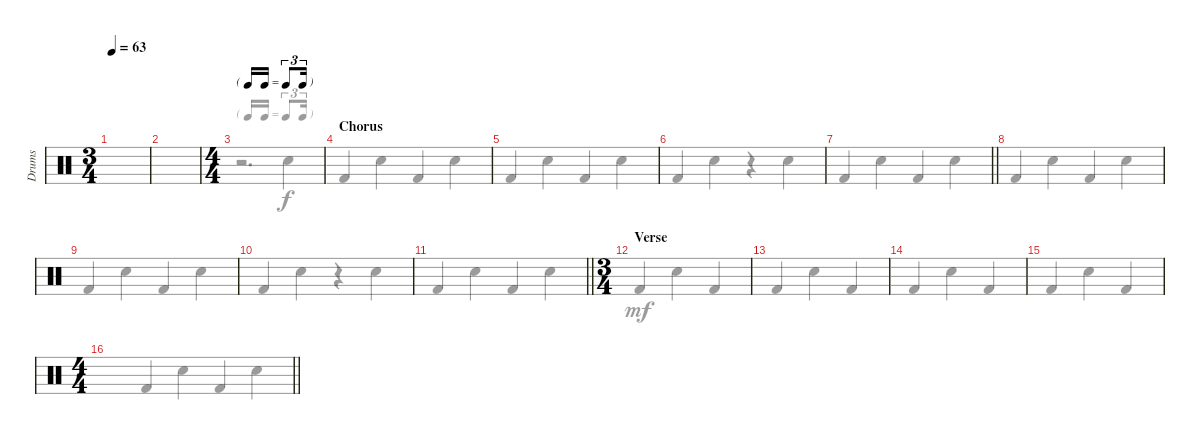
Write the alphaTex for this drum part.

\bracketExtendMode groupsimilarinstruments
\otherSystemsTrackNameOrientation horizontal
\track ("Drumkit" "Drums") {instrument percussion}
\staff {score}
\articulation defaults
\voice
\ts (3 4)
\tempo 63
\clef neutral
\scale
0.263889
\ks c
|
\scale
0.263889 |
\ts (4 4)
\beaming (8 2 2 2 2)
\tf triplet16th
\scale
0.472222 |
\section ("" "Chorus")
\scale
0.333333 |
\scale
0.333333 |
\scale
0.333333 |
\scale
0.263889
\barLineRight lightlight
|
|
|
|
\barLineRight lightlight
|
\ts (3 4)
\beaming (8 2 2 2)
\section ("" "Verse")
\scale
0.472222 |
\scale
0.263889 |
\scale
0.263889 |
\scale
0.263889 |
\ts (4 4)
\beaming (8 2 2 2 2)
\scale
0.472222
\barLineRight lightlight
\voice
\clef neutral
\ottava regular
\simile none
\scale
0.263889
\ks c
|
\scale
0.263889 |
\scale
0.472222 |
\scale
0.333333 |
\scale
0.333333 |
\scale
0.333333 |
\scale
0.263889
\barLineRight lightlight
|
|
|
|
\barLineRight lightlight
|
\scale
0.472222 |
\scale
0.263889 |
\scale
0.263889 |
\scale
0.263889 |
\scale
0.472222
\barLineRight lightlight
\voice
\clef neutral
\ottava regular
\simile none
\scale
0.263889
\ks c
|
\scale
0.263889 |
\scale
0.472222 r.2{d beam Down} "Snare (hit) 2".4{dy f beam Down} |
\scale
0.333333 "Kick (hit) 2".4{beam Up} "Snare (hit) 2".4{beam Down} "Kick (hit) 2".4{beam Up} "Snare (hit) 2".4{beam Down} |
\scale
0.333333 "Kick (hit) 2".4{beam Up} "Snare (hit) 2".4{beam Down} "Kick (hit) 2".4{beam Up} "Snare (hit) 2".4{beam Down} |
\scale
0.333333 "Kick (hit) 2".4{beam Up} "Snare (hit) 2".4{beam Down} r.4{beam Down} "Snare (hit) 2".4{beam Down} |
\scale
0.263889
\barLineRight lightlight "Kick (hit) 2".4{beam Up} "Snare (hit) 2".4{beam Down} "Kick (hit) 2".4{beam Up} "Snare (hit) 2".4{beam Down}
|
"Kick (hit) 2".4{beam Up} "Snare (hit) 2".4{beam Down} "Kick (hit) 2".4{beam Up} "Snare (hit) 2".4{beam Down} |
"Kick (hit) 2".4{beam Up} "Snare (hit) 2".4{beam Down} "Kick (hit) 2".4{beam Up} "Snare (hit) 2".4{beam Down} |
"Kick (hit) 2".4{beam Up} "Snare (hit) 2".4{beam Down} r.4{beam Down} "Snare (hit) 2".4{beam Down} |
\barLineRight lightlight "Kick (hit) 2".4{beam Up} "Snare (hit) 2".4{beam Down} "Kick (hit) 2".4{beam Up} "Snare (hit) 2".4{beam Down}
|
\scale
0.472222 "Kick (hit) 2".4{dy mf beam Up} "Snare (hit) 2".4{beam Down} "Kick (hit) 2".4{beam Up} |
\scale
0.263889 "Kick (hit) 2".4{beam Up} "Snare (hit) 2".4{beam Down} "Kick (hit) 2".4{beam Up} |
\scale
0.263889 "Kick (hit) 2".4{beam Up} "Snare (hit) 2".4{beam Down} "Kick (hit) 2".4{beam Up} |
\scale
0.263889 "Kick (hit) 2".4{beam Up} "Snare (hit) 2".4{beam Down} "Kick (hit) 2".4{beam Up} |
\scale
0.472222
\barLineRight lightlight "Kick (hit) 2".4{beam Up} "Snare (hit) 2".4{beam Down} "Kick (hit) 2".4{beam Up} "Snare (hit) 2".4{beam Down}
